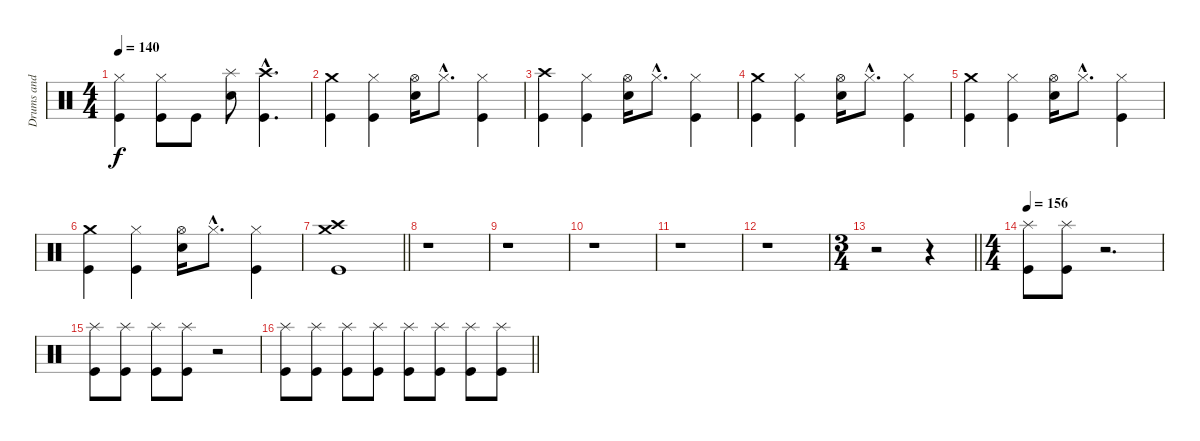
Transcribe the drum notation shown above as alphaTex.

\track ("Drums and percussion" "Drums and ") {instrument percussion}
\staff {score}
\articulation defaults
\ts (4 4)
\tempo 140
\clef neutral
\ks c
("Hi-Hat (closed)" "Kick (hit)").4{dy f} ("Hi-Hat (closed)" "Kick (hit)").8 "Kick (hit)".8 ("Splash (hit)" "Electric Snare (hit)").8 ("Crash high (hit)"{hac} "Kick (hit)"{hac}).4{d} |
("Crash medium (hit)" "Kick (hit)").4 ("Hi-Hat (closed)" "Kick (hit)").4 ("Hi-Hat (open)" "Electric Snare (hit)").16 "Hi-Hat (closed)"{hac}.8{d} ("Hi-Hat (closed)" "Kick (hit)").4 |
("Crash high (hit)" "Kick (hit)").4 ("Hi-Hat (closed)" "Kick (hit)").4 ("Hi-Hat (open)" "Electric Snare (hit)").16 "Hi-Hat (closed)"{hac}.8{d} ("Hi-Hat (closed)" "Kick (hit)").4 |
("Crash medium (hit)" "Kick (hit)").4 ("Hi-Hat (closed)" "Kick (hit)").4 ("Hi-Hat (open)" "Electric Snare (hit)").16 "Hi-Hat (closed)"{hac}.8{d} ("Hi-Hat (closed)" "Kick (hit)").4 |
("Crash medium (hit)" "Kick (hit)").4 ("Hi-Hat (closed)" "Kick (hit)").4 ("Hi-Hat (open)" "Electric Snare (hit)").16 "Hi-Hat (closed)"{hac}.8{d} ("Hi-Hat (closed)" "Kick (hit)").4 |
("Crash medium (hit)" "Kick (hit)").4 ("Hi-Hat (closed)" "Kick (hit)").4 ("Hi-Hat (open)" "Electric Snare (hit)").16 "Hi-Hat (closed)"{hac}.8{d} ("Hi-Hat (closed)" "Kick (hit)").4 |
\barLineRight lightlight
("Crash medium (hit)" "Crash high (hit)" "Kick (hit)").1 |
r.1 |
r.1 |
r.1 |
r.1 |
r.1 |
\ts (3 4)
\barLineRight lightlight
r.2 r.4 |
\ts (4 4)
\tempo 156
("Splash (hit)" "Kick (hit)").8{balance 0} ("Splash (hit)" "Kick (hit)").8{balance 16} r.2{d} |
("Splash (hit)" "Kick (hit)").8{balance 0} ("Splash (hit)" "Kick (hit)").8{balance 16} ("Splash (hit)" "Kick (hit)").8{balance 0} ("Splash (hit)" "Kick (hit)").8{balance 16} r.2 |
\barLineRight lightlight
("Splash (hit)" "Kick (hit)").8{balance 0} ("Splash (hit)" "Kick (hit)").8{balance 16} ("Splash (hit)" "Kick (hit)").8{balance 0} ("Splash (hit)" "Kick (hit)").8{balance 16} ("Splash (hit)" "Kick (hit)").8{balance 0} ("Splash (hit)" "Kick (hit)").8{balance 16} ("Splash (hit)" "Kick (hit)").8{balance 0} ("Splash (hit)" "Kick (hit)").8{balance 16}
